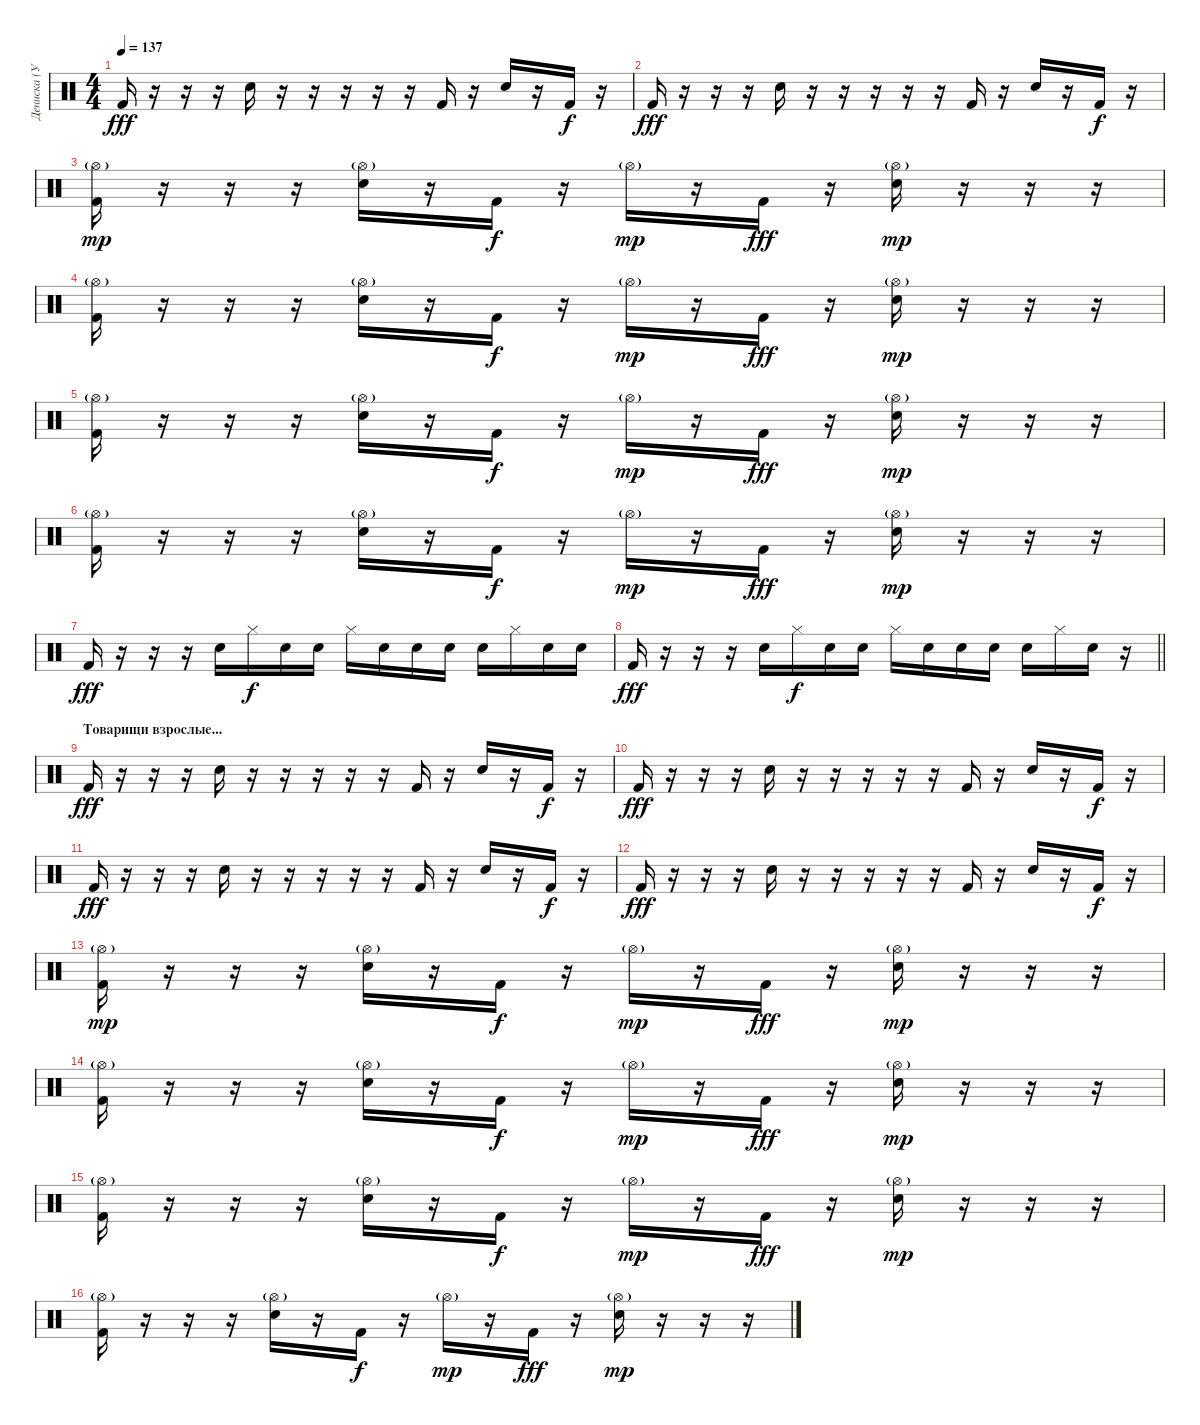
\track ("Дениска (Ударник)" "Дениска (У") {instrument percussion}
\staff
\articulation defaults
\ts (4 4)
\tempo 137
\clef neutral
\ks c "Kick (hit) 2".16{dy fff}
r.16 r.16 r.16 "Snare (hit) 2".16 r.16 r.16 r.16 r.16 r.16 "Kick (hit) 2".16 r.16 "Snare (hit) 2".16 r.16 "Kick (hit) 2".16{dy f} r.16 |
"Kick (hit) 2".16{dy fff} r.16 r.16 r.16 "Snare (hit) 2".16 r.16 r.16 r.16 r.16 r.16 "Kick (hit) 2".16 r.16 "Snare (hit) 2".16 r.16 "Kick (hit) 2".16{dy f} r.16 |
("Kick (hit) 2" "Hi-Hat (open)"{g}).16{dy mp} r.16 r.16 r.16 ("Snare (hit) 2" "Hi-Hat (open)"{g}).16 r.16 "Kick (hit) 2".16{dy f} r.16 "Hi-Hat (open)"{g}.16{dy mp} r.16 "Kick (hit) 2".16{dy fff} r.16 ("Snare (hit) 2" "Hi-Hat (open)"{g}).16{dy mp} r.16 r.16 r.16 |
("Kick (hit) 2" "Hi-Hat (open)"{g}).16 r.16 r.16 r.16 ("Snare (hit) 2" "Hi-Hat (open)"{g}).16 r.16 "Kick (hit) 2".16{dy f} r.16 "Hi-Hat (open)"{g}.16{dy mp} r.16 "Kick (hit) 2".16{dy fff} r.16 ("Snare (hit) 2" "Hi-Hat (open)"{g}).16{dy mp} r.16 r.16 r.16 |
("Kick (hit) 2" "Hi-Hat (open)"{g}).16 r.16 r.16 r.16 ("Snare (hit) 2" "Hi-Hat (open)"{g}).16 r.16 "Kick (hit) 2".16{dy f} r.16 "Hi-Hat (open)"{g}.16{dy mp} r.16 "Kick (hit) 2".16{dy fff} r.16 ("Snare (hit) 2" "Hi-Hat (open)"{g}).16{dy mp} r.16 r.16 r.16 |
("Kick (hit) 2" "Hi-Hat (open)"{g}).16 r.16 r.16 r.16 ("Snare (hit) 2" "Hi-Hat (open)"{g}).16 r.16 "Kick (hit) 2".16{dy f} r.16 "Hi-Hat (open)"{g}.16{dy mp} r.16 "Kick (hit) 2".16{dy fff} r.16 ("Snare (hit) 2" "Hi-Hat (open)"{g}).16{dy mp} r.16 r.16 r.16 |
"Kick (hit) 2".16{dy fff} r.16 r.16 r.16 "Snare (hit) 2".16 "Hi-Hat (closed)".16{dy f} "Snare (hit) 2".16 "Snare (hit) 2".16 "Hi-Hat (closed)".16 "Snare (hit) 2".16 "Snare (hit) 2".16 "Snare (hit) 2".16 "Snare (hit) 2".16 "Hi-Hat (closed)".16 "Snare (hit) 2".16 "Snare (hit) 2".16 |
\barLineRight lightlight "Kick (hit) 2".16{dy fff}
r.16 r.16 r.16 "Snare (hit) 2".16 "Hi-Hat (closed)".16{dy f} "Snare (hit) 2".16 "Snare (hit) 2".16 "Hi-Hat (closed)".16 "Snare (hit) 2".16 "Snare (hit) 2".16 "Snare (hit) 2".16 "Snare (hit) 2".16 "Hi-Hat (closed)".16 "Snare (hit) 2".16 r.16 |
\section ("" "Товарищи взрослые...")
"Kick (hit) 2".16{dy fff} r.16 r.16 r.16 "Snare (hit) 2".16 r.16 r.16 r.16 r.16 r.16 "Kick (hit) 2".16 r.16 "Snare (hit) 2".16 r.16 "Kick (hit) 2".16{dy f} r.16 |
"Kick (hit) 2".16{dy fff} r.16 r.16 r.16 "Snare (hit) 2".16 r.16 r.16 r.16 r.16 r.16 "Kick (hit) 2".16 r.16 "Snare (hit) 2".16 r.16 "Kick (hit) 2".16{dy f} r.16 |
"Kick (hit) 2".16{dy fff} r.16 r.16 r.16 "Snare (hit) 2".16 r.16 r.16 r.16 r.16 r.16 "Kick (hit) 2".16 r.16 "Snare (hit) 2".16 r.16 "Kick (hit) 2".16{dy f} r.16 |
"Kick (hit) 2".16{dy fff} r.16 r.16 r.16 "Snare (hit) 2".16 r.16 r.16 r.16 r.16 r.16 "Kick (hit) 2".16 r.16 "Snare (hit) 2".16 r.16 "Kick (hit) 2".16{dy f} r.16 |
("Kick (hit) 2" "Hi-Hat (open)"{g}).16{dy mp} r.16 r.16 r.16 ("Snare (hit) 2" "Hi-Hat (open)"{g}).16 r.16 "Kick (hit) 2".16{dy f} r.16 "Hi-Hat (open)"{g}.16{dy mp} r.16 "Kick (hit) 2".16{dy fff} r.16 ("Snare (hit) 2" "Hi-Hat (open)"{g}).16{dy mp} r.16 r.16 r.16 |
("Kick (hit) 2" "Hi-Hat (open)"{g}).16 r.16 r.16 r.16 ("Snare (hit) 2" "Hi-Hat (open)"{g}).16 r.16 "Kick (hit) 2".16{dy f} r.16 "Hi-Hat (open)"{g}.16{dy mp} r.16 "Kick (hit) 2".16{dy fff} r.16 ("Snare (hit) 2" "Hi-Hat (open)"{g}).16{dy mp} r.16 r.16 r.16 |
("Kick (hit) 2" "Hi-Hat (open)"{g}).16 r.16 r.16 r.16 ("Snare (hit) 2" "Hi-Hat (open)"{g}).16 r.16 "Kick (hit) 2".16{dy f} r.16 "Hi-Hat (open)"{g}.16{dy mp} r.16 "Kick (hit) 2".16{dy fff} r.16 ("Snare (hit) 2" "Hi-Hat (open)"{g}).16{dy mp} r.16 r.16 r.16 |
("Kick (hit) 2" "Hi-Hat (open)"{g}).16 r.16 r.16 r.16 ("Snare (hit) 2" "Hi-Hat (open)"{g}).16 r.16 "Kick (hit) 2".16{dy f} r.16 "Hi-Hat (open)"{g}.16{dy mp} r.16 "Kick (hit) 2".16{dy fff} r.16 ("Snare (hit) 2" "Hi-Hat (open)"{g}).16{dy mp} r.16 r.16 r.16
